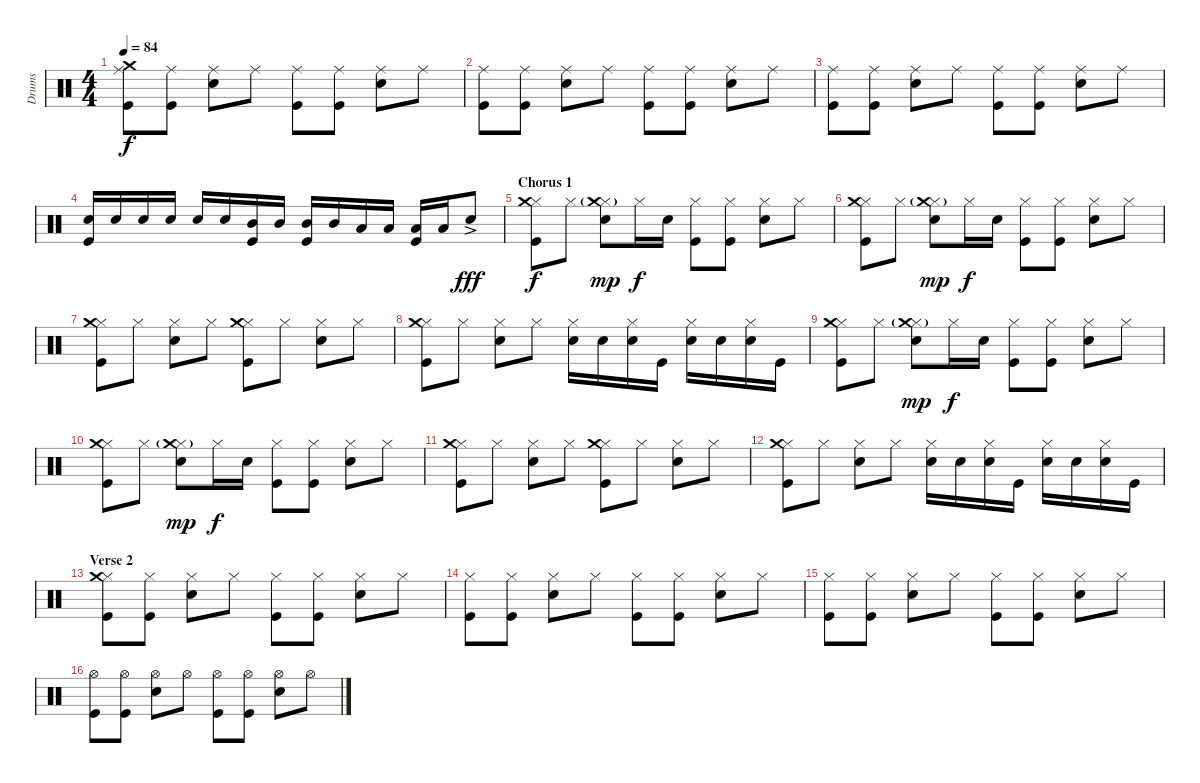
\track ("Drums" "Drums") {instrument percussion}
\staff {score}
\articulation defaults
\ts (4 4)
\tempo 84
\clef neutral
\ks c
("Ride (middle)" "Crash medium (hit)" "Kick (hit)").8{dy f} ("Ride (middle)" "Kick (hit)").8 ("Ride (middle)" "Snare (hit) 2").8 "Ride (middle)".8 ("Ride (middle)" "Kick (hit)").8 ("Ride (middle)" "Kick (hit)").8 ("Ride (middle)" "Snare (hit) 2").8 "Ride (middle)".8 |
("Ride (middle)" "Kick (hit)").8 ("Ride (middle)" "Kick (hit)").8 ("Ride (middle)" "Snare (hit) 2").8 "Ride (middle)".8 ("Ride (middle)" "Kick (hit)").8 ("Ride (middle)" "Kick (hit)").8 ("Ride (middle)" "Snare (hit) 2").8 "Ride (middle)".8 |
("Ride (middle)" "Kick (hit)").8 ("Ride (middle)" "Kick (hit)").8 ("Ride (middle)" "Snare (hit) 2").8 "Ride (middle)".8 ("Ride (middle)" "Kick (hit)").8 ("Ride (middle)" "Kick (hit)").8 ("Ride (middle)" "Snare (hit) 2").8 "Ride (middle)".8 |
("Snare (hit) 2" "Kick (hit)").16 "Snare (hit) 2".16 "Snare (hit) 2".16 "Snare (hit) 2".16 "Snare (hit) 2".16 "Snare (hit) 2".16 ("Mid Tom (hit)" "Kick (hit)").16 "Mid Tom (hit)".16 ("Mid Tom (hit)" "Kick (hit)").16 "Mid Tom (hit)".16 "Low Tom (hit)".16 "Low Tom (hit)".16 ("Low Tom (hit)" "Kick (hit)").16 "Low Tom (hit)".16 "Snare (hit) 2"{ac}.8{dy fff} |
\section ("" "Chorus 1")
("Hi-Hat (closed)" "Crash medium (hit)" "Kick (hit)").8{dy f} "Hi-Hat (closed)".8 ("Hi-Hat (closed)" "Crash medium (hit)"{g} "Snare (hit) 2").8{dy mp} "Hi-Hat (closed)".16{dy f} "Snare (hit) 2".16 ("Hi-Hat (closed)" "Kick (hit)").8 ("Hi-Hat (closed)" "Kick (hit)").8 ("Hi-Hat (closed)" "Snare (hit) 2").8 "Hi-Hat (closed)".8 |
("Hi-Hat (closed)" "Crash medium (hit)" "Kick (hit)").8 "Hi-Hat (closed)".8 ("Hi-Hat (closed)" "Crash medium (hit)"{g} "Snare (hit) 2").8{dy mp} "Hi-Hat (closed)".16{dy f} "Snare (hit) 2".16 ("Hi-Hat (closed)" "Kick (hit)").8 ("Hi-Hat (closed)" "Kick (hit)").8 ("Hi-Hat (closed)" "Snare (hit) 2").8 "Hi-Hat (closed)".8 |
("Hi-Hat (closed)" "Crash medium (hit)" "Kick (hit)").8 "Hi-Hat (closed)".8 ("Hi-Hat (closed)" "Snare (hit) 2").8 "Hi-Hat (closed)".8 ("Hi-Hat (closed)" "Crash medium (hit)" "Kick (hit)").8 "Hi-Hat (closed)".8 ("Hi-Hat (closed)" "Snare (hit) 2").8 "Hi-Hat (closed)".8 |
("Hi-Hat (closed)" "Crash medium (hit)" "Kick (hit)").8 "Hi-Hat (closed)".8 ("Hi-Hat (closed)" "Snare (hit) 2").8 "Hi-Hat (closed)".8 ("Hi-Hat (closed)" "Snare (hit) 2").16 "Snare (hit) 2".16 ("Hi-Hat (closed)" "Snare (hit) 2").16 "Kick (hit)".16 ("Hi-Hat (closed)" "Snare (hit) 2").16 "Snare (hit) 2".16 ("Hi-Hat (closed)" "Snare (hit) 2").16 "Kick (hit)".16 |
("Hi-Hat (closed)" "Crash medium (hit)" "Kick (hit)").8 "Hi-Hat (closed)".8 ("Hi-Hat (closed)" "Crash medium (hit)"{g} "Snare (hit) 2").8{dy mp} "Hi-Hat (closed)".16{dy f} "Snare (hit) 2".16 ("Hi-Hat (closed)" "Kick (hit)").8 ("Hi-Hat (closed)" "Kick (hit)").8 ("Hi-Hat (closed)" "Snare (hit) 2").8 "Hi-Hat (closed)".8 |
("Hi-Hat (closed)" "Crash medium (hit)" "Kick (hit)").8 "Hi-Hat (closed)".8 ("Hi-Hat (closed)" "Crash medium (hit)"{g} "Snare (hit) 2").8{dy mp} "Hi-Hat (closed)".16{dy f} "Snare (hit) 2".16 ("Hi-Hat (closed)" "Kick (hit)").8 ("Hi-Hat (closed)" "Kick (hit)").8 ("Hi-Hat (closed)" "Snare (hit) 2").8 "Hi-Hat (closed)".8 |
("Hi-Hat (closed)" "Crash medium (hit)" "Kick (hit)").8 "Hi-Hat (closed)".8 ("Hi-Hat (closed)" "Snare (hit) 2").8 "Hi-Hat (closed)".8 ("Hi-Hat (closed)" "Crash medium (hit)" "Kick (hit)").8 "Hi-Hat (closed)".8 ("Hi-Hat (closed)" "Snare (hit) 2").8 "Hi-Hat (closed)".8 |
("Hi-Hat (closed)" "Crash medium (hit)" "Kick (hit)").8 "Hi-Hat (closed)".8 ("Hi-Hat (closed)" "Snare (hit) 2").8 "Hi-Hat (closed)".8 ("Hi-Hat (closed)" "Snare (hit) 2").16 "Snare (hit) 2".16 ("Hi-Hat (closed)" "Snare (hit) 2").16 "Kick (hit)".16 ("Hi-Hat (closed)" "Snare (hit) 2").16 "Snare (hit) 2".16 ("Hi-Hat (closed)" "Snare (hit) 2").16 "Kick (hit)".16 |
\section ("" "Verse 2")
("Hi-Hat (closed)" "Crash medium (hit)" "Kick (hit)").8 ("Hi-Hat (closed)" "Kick (hit)").8 ("Hi-Hat (closed)" "Snare (hit) 2").8 "Hi-Hat (closed)".8 ("Hi-Hat (closed)" "Kick (hit)").8 ("Hi-Hat (closed)" "Kick (hit)").8 ("Hi-Hat (closed)" "Snare (hit) 2").8 "Hi-Hat (closed)".8 |
("Hi-Hat (closed)" "Kick (hit)").8 ("Hi-Hat (closed)" "Kick (hit)").8 ("Hi-Hat (closed)" "Snare (hit) 2").8 "Hi-Hat (closed)".8 ("Hi-Hat (closed)" "Kick (hit)").8 ("Hi-Hat (closed)" "Kick (hit)").8 ("Hi-Hat (closed)" "Snare (hit) 2").8 "Hi-Hat (closed)".8 |
("Hi-Hat (closed)" "Kick (hit)").8 ("Hi-Hat (closed)" "Kick (hit)").8 ("Hi-Hat (closed)" "Snare (hit) 2").8 "Hi-Hat (closed)".8 ("Hi-Hat (closed)" "Kick (hit)").8 ("Hi-Hat (closed)" "Kick (hit)").8 ("Hi-Hat (closed)" "Snare (hit) 2").8 "Hi-Hat (closed)".8 |
("Hi-Hat (open)" "Kick (hit)").8 ("Hi-Hat (open)" "Kick (hit)").8 ("Hi-Hat (open)" "Snare (hit) 2").8 "Hi-Hat (open)".8 ("Hi-Hat (open)" "Kick (hit)").8 ("Hi-Hat (open)" "Kick (hit)").8 ("Hi-Hat (open)" "Snare (hit) 2").8 "Hi-Hat (open)".8
